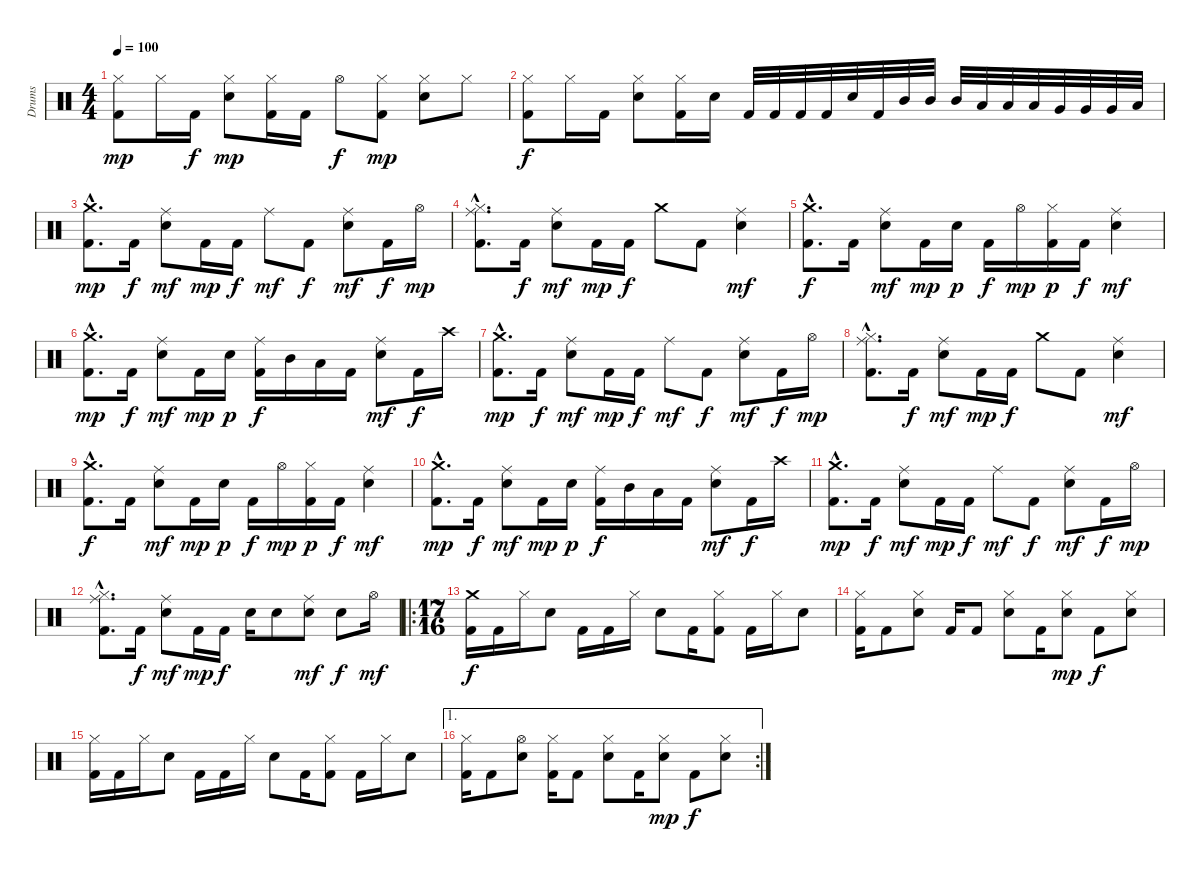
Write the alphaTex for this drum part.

\track ("Drums" "Drums") {instrument percussion}
\staff {score}
\articulation defaults
\ts (4 4)
\tempo 100
\clef neutral
\ks c
("Hi-Hat (closed)" "Kick (hit) 2").8{dy mp} "Hi-Hat (closed)".16 "Kick (hit) 2".16{dy f} ("Hi-Hat (closed)" "Electric Snare (hit)").8{dy mp} ("Hi-Hat (closed)" "Kick (hit) 2").16 "Kick (hit) 2".16 "Hi-Hat (open)".8{dy f} ("Hi-Hat (closed)" "Kick (hit) 2").8{dy mp} ("Hi-Hat (closed)" "Electric Snare (hit)").8 "Hi-Hat (closed)".8 |
("Hi-Hat (closed)" "Kick (hit) 2").8{dy f} "Hi-Hat (closed)".16 "Kick (hit) 2".16 ("Hi-Hat (closed)" "Electric Snare (hit)").8 ("Hi-Hat (closed)" "Kick (hit) 2").16 "Electric Snare (hit)".16 "Kick (hit) 2".32 "Kick (hit) 2".32 "Kick (hit) 2".32 "Kick (hit) 2".32 "Electric Snare (hit)".32 "Kick (hit) 2".32 "Mid Tom (hit)".32 "Mid Tom (hit)".32 "Mid Tom (hit)".32 "Low Tom (hit)".32 "Low Tom (hit)".32 "Low Tom (hit)".32 "Very Low Tom (hit)".32 "Very Low Tom (hit)".32 "Very Low Tom (hit)".32 "Low Floor Tom (hit)".32 |
("Crash medium (hit)"{hac} "Kick (hit) 2"{hac}).8{d dy mp} "Kick (hit) 2".16{dy f} ("Ride (middle)" "Electric Snare (hit)").8{dy mf} "Kick (hit) 2".16{dy mp} "Kick (hit) 2".16{dy f} "Ride (middle)".8{dy mf} "Kick (hit) 2".8{dy f} ("Ride (middle)" "Electric Snare (hit)").8{dy mf} "Kick (hit) 2".16{dy f} "Hi-Hat (open)".16{dy mp} |
("Hi-Hat (closed)"{hac} "Ride (middle)"{hac} "Kick (hit) 2"{hac}).8{d} "Kick (hit) 2".16{dy f} ("Ride (middle)" "Electric Snare (hit)").8{dy mf} "Kick (hit) 2".16{dy mp} "Kick (hit) 2".16{dy f} "Crash medium (hit)".8 "Kick (hit) 2".8 ("Ride (middle)" "Electric Snare (hit)").4{dy mf} |
("Crash medium (hit)"{hac} "Kick (hit) 2"{hac}).8{d dy f} "Kick (hit) 2".16 ("Ride (middle)" "Electric Snare (hit)").8{dy mf} "Kick (hit) 2".16{dy mp} "Electric Snare (hit)".16{dy p} "Kick (hit) 2".16{dy f} "Hi-Hat (open)".16{dy mp} ("Hi-Hat (closed)" "Kick (hit) 2").16{dy p} "Kick (hit) 2".16{dy f} ("Ride (middle)" "Electric Snare (hit)").4{dy mf} |
("Crash medium (hit)"{hac} "Kick (hit) 2"{hac}).8{d dy mp} "Kick (hit) 2".16{dy f} ("Ride (middle)" "Electric Snare (hit)").8{dy mf} "Kick (hit) 2".16{dy mp} "Electric Snare (hit)".16{dy p} ("Ride (middle)" "Kick (hit) 2").16{dy f} "Mid Tom (hit)".16 "Low Tom (hit)".16 "Kick (hit) 2".16 ("Ride (middle)" "Electric Snare (hit)").8{dy mf} "Kick (hit) 2".16{dy f} "Crash high (hit)".16 |
("Crash medium (hit)"{hac} "Kick (hit) 2"{hac}).8{d dy mp} "Kick (hit) 2".16{dy f} ("Ride (middle)" "Electric Snare (hit)").8{dy mf} "Kick (hit) 2".16{dy mp} "Kick (hit) 2".16{dy f} "Ride (middle)".8{dy mf} "Kick (hit) 2".8{dy f} ("Ride (middle)" "Electric Snare (hit)").8{dy mf} "Kick (hit) 2".16{dy f} "Hi-Hat (open)".16{dy mp} |
("Hi-Hat (closed)"{hac} "Ride (middle)"{hac} "Kick (hit) 2"{hac}).8{d} "Kick (hit) 2".16{dy f} ("Ride (middle)" "Electric Snare (hit)").8{dy mf} "Kick (hit) 2".16{dy mp} "Kick (hit) 2".16{dy f} "Crash medium (hit)".8 "Kick (hit) 2".8 ("Ride (middle)" "Electric Snare (hit)").4{dy mf} |
("Crash medium (hit)"{hac} "Kick (hit) 2"{hac}).8{d dy f} "Kick (hit) 2".16 ("Ride (middle)" "Electric Snare (hit)").8{dy mf} "Kick (hit) 2".16{dy mp} "Electric Snare (hit)".16{dy p} "Kick (hit) 2".16{dy f} "Hi-Hat (open)".16{dy mp} ("Hi-Hat (closed)" "Kick (hit) 2").16{dy p} "Kick (hit) 2".16{dy f} ("Ride (middle)" "Electric Snare (hit)").4{dy mf} |
("Crash medium (hit)"{hac} "Kick (hit) 2"{hac}).8{d dy mp} "Kick (hit) 2".16{dy f} ("Ride (middle)" "Electric Snare (hit)").8{dy mf} "Kick (hit) 2".16{dy mp} "Electric Snare (hit)".16{dy p} ("Ride (middle)" "Kick (hit) 2").16{dy f} "Mid Tom (hit)".16 "Low Tom (hit)".16 "Kick (hit) 2".16 ("Ride (middle)" "Electric Snare (hit)").8{dy mf} "Kick (hit) 2".16{dy f} "Crash high (hit)".16 |
("Crash medium (hit)"{hac} "Kick (hit) 2"{hac}).8{d dy mp} "Kick (hit) 2".16{dy f} ("Ride (middle)" "Electric Snare (hit)").8{dy mf} "Kick (hit) 2".16{dy mp} "Kick (hit) 2".16{dy f} "Ride (middle)".8{dy mf} "Kick (hit) 2".8{dy f} ("Ride (middle)" "Electric Snare (hit)").8{dy mf} "Kick (hit) 2".16{dy f} "Hi-Hat (open)".16{dy mp} |
("Hi-Hat (closed)"{hac} "Ride (middle)"{hac} "Kick (hit) 2"{hac}).8{d} "Kick (hit) 2".16{dy f} ("Ride (middle)" "Electric Snare (hit)").8{dy mf} "Kick (hit) 2".16{dy mp} "Kick (hit) 2".16{dy f} "Electric Snare (hit)".16 "Electric Snare (hit)".8 ("Ride (middle)" "Electric Snare (hit)").8{dy mf} "Electric Snare (hit)".8{dy f} "Hi-Hat (open)".16{dy mf} |
\ro
\ts (17 16)
("Crash medium (hit)" "Kick (hit) 2").16{dy f} "Kick (hit) 2".16 "Hi-Hat (closed)".16 "Electric Snare (hit)".8 "Kick (hit) 2".16 "Kick (hit) 2".16 "Hi-Hat (closed)".16 "Electric Snare (hit)".8 "Kick (hit) 2".16 ("Hi-Hat (closed)" "Kick (hit) 2").8 "Kick (hit) 2".16 "Hi-Hat (closed)".16 "Electric Snare (hit)".8 |
("Hi-Hat (closed)" "Kick (hit) 2").16 "Kick (hit) 2".8 ("Hi-Hat (closed)" "Electric Snare (hit)").8 "Kick (hit) 2".16 "Kick (hit) 2".8 ("Hi-Hat (closed)" "Electric Snare (hit)").8 "Kick (hit) 2".16 ("Hi-Hat (closed)" "Electric Snare (hit)").8{dy mp} "Kick (hit) 2".8{dy f} ("Hi-Hat (closed)" "Electric Snare (hit)").8 |
("Hi-Hat (closed)" "Kick (hit) 2").16 "Kick (hit) 2".16 "Hi-Hat (closed)".16 "Electric Snare (hit)".8 "Kick (hit) 2".16 "Kick (hit) 2".16 "Hi-Hat (closed)".16 "Electric Snare (hit)".8 "Kick (hit) 2".16 ("Hi-Hat (closed)" "Kick (hit) 2").8 "Kick (hit) 2".16 "Hi-Hat (closed)".16 "Electric Snare (hit)".8 |
\ae 1
\rc 2
("Hi-Hat (closed)" "Kick (hit) 2").16 "Kick (hit) 2".8 ("Hi-Hat (open)" "Electric Snare (hit)").8 ("Hi-Hat (closed)" "Kick (hit) 2").16 "Kick (hit) 2".8 ("Hi-Hat (closed)" "Electric Snare (hit)").8 "Kick (hit) 2".16 ("Hi-Hat (closed)" "Electric Snare (hit)").8{dy mp} "Kick (hit) 2".8{dy f} ("Hi-Hat (closed)" "Electric Snare (hit)").8
